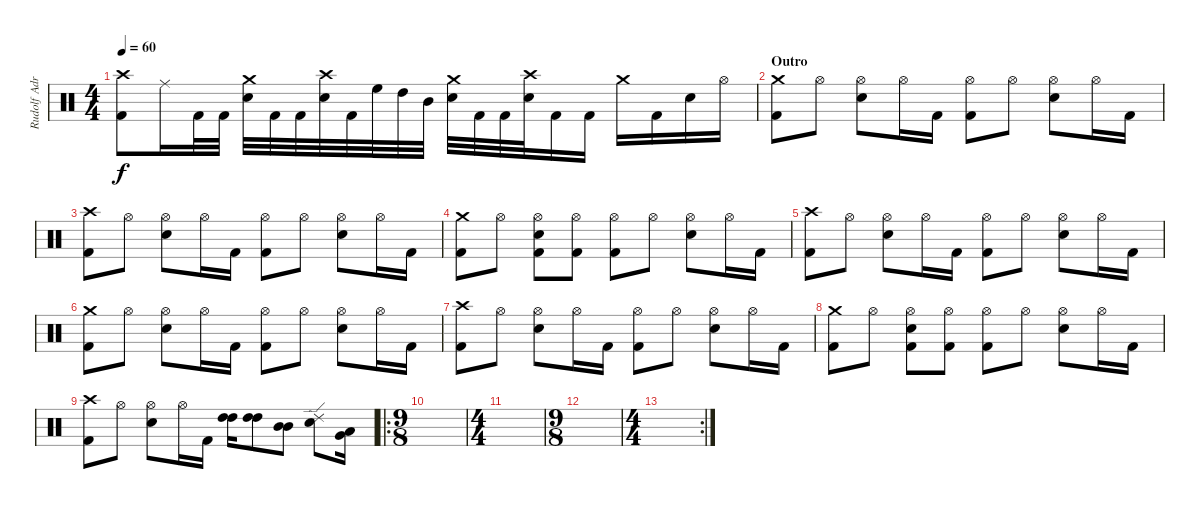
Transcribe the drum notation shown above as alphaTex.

\track ("Rudolf Adrianus Jolie" "Rudolf Adr") {instrument percussion}
\staff {score}
\articulation defaults
\ts (4 4)
\tempo 60
\clef neutral
\ks c
("Crash high (hit)" "Kick (hit) 2").8{dy f} "Ride (middle)".16 "Kick (hit) 2".32 "Kick (hit) 2".32 ("Crash medium (hit)" "Snare (hit) 2").32 "Kick (hit) 2".32 "Kick (hit) 2".32 ("Crash high (hit)" "Snare (hit) 2").32 "Kick (hit) 2".32 "High Floor Tom (hit)".32 "High Tom (hit)".32 "Mid Tom (hit)".32 ("Crash medium (hit)" "Snare (hit) 2").32 "Kick (hit) 2".32 "Kick (hit) 2".32 ("Crash high (hit)" "Snare (hit) 2").32 "Kick (hit) 2".16 "Kick (hit) 2".16 "Crash medium (hit)".16 "Kick (hit) 2".16 "Snare (hit) 2".16 "Hi-Hat (open)".16 |
\section ("" "Outro")
("Crash medium (hit)" "Kick (hit) 2").8 "Hi-Hat (open)".8 ("Hi-Hat (open)" "Snare (hit) 2").8 "Hi-Hat (open)".16 "Kick (hit) 2".16 ("Hi-Hat (open)" "Kick (hit) 2").8 "Hi-Hat (open)".8 ("Hi-Hat (open)" "Snare (hit) 2").8 "Hi-Hat (open)".16 "Kick (hit) 2".16 |
("Crash high (hit)" "Kick (hit) 2").8 "Hi-Hat (open)".8 ("Hi-Hat (open)" "Snare (hit) 2").8 "Hi-Hat (open)".16 "Kick (hit) 2".16 ("Hi-Hat (open)" "Kick (hit) 2").8 "Hi-Hat (open)".8 ("Hi-Hat (open)" "Snare (hit) 2").8 "Hi-Hat (open)".16 "Kick (hit) 2".16 |
("Crash medium (hit)" "Kick (hit) 2").8 "Hi-Hat (open)".8 ("Hi-Hat (open)" "Snare (hit) 2" "Kick (hit) 2").8 ("Hi-Hat (open)" "Kick (hit) 2").8 ("Hi-Hat (open)" "Kick (hit) 2").8 "Hi-Hat (open)".8 ("Hi-Hat (open)" "Snare (hit) 2").8 "Hi-Hat (open)".16 "Kick (hit) 2".16 |
("Crash high (hit)" "Kick (hit) 2").8 "Hi-Hat (open)".8 ("Hi-Hat (open)" "Snare (hit) 2").8 "Hi-Hat (open)".16 "Kick (hit) 2".16 ("Hi-Hat (open)" "Kick (hit) 2").8 "Hi-Hat (open)".8 ("Hi-Hat (open)" "Snare (hit) 2").8 "Hi-Hat (open)".16 "Kick (hit) 2".16 |
("Crash medium (hit)" "Kick (hit) 2").8 "Hi-Hat (open)".8 ("Hi-Hat (open)" "Snare (hit) 2").8 "Hi-Hat (open)".16 "Kick (hit) 2".16 ("Hi-Hat (open)" "Kick (hit) 2").8 "Hi-Hat (open)".8 ("Hi-Hat (open)" "Snare (hit) 2").8 "Hi-Hat (open)".16 "Kick (hit) 2".16 |
("Crash high (hit)" "Kick (hit) 2").8 "Hi-Hat (open)".8 ("Hi-Hat (open)" "Snare (hit) 2").8 "Hi-Hat (open)".16 "Kick (hit) 2".16 ("Hi-Hat (open)" "Kick (hit) 2").8 "Hi-Hat (open)".8 ("Hi-Hat (open)" "Snare (hit) 2").8 "Hi-Hat (open)".16 "Kick (hit) 2".16 |
("Crash medium (hit)" "Kick (hit) 2").8 "Hi-Hat (open)".8 ("Hi-Hat (open)" "Snare (hit) 2" "Kick (hit) 2").8 ("Hi-Hat (open)" "Kick (hit) 2").8 ("Hi-Hat (open)" "Kick (hit) 2").8 "Hi-Hat (open)".8 ("Hi-Hat (open)" "Snare (hit) 2").8 "Hi-Hat (open)".16 "Kick (hit) 2".16 |
("Crash high (hit)" "Kick (hit) 2").8 "Hi-Hat (open)".8 ("Hi-Hat (open)" "Snare (hit) 2").8 "Hi-Hat (open)".16 "Kick (hit) 2".16 ("High Tom (hit)" "High Tom (hit)").16 ("High Tom (hit)" "High Tom (hit)").8 ("Mid Tom (hit)" "Mid Tom (hit)").8 ("Ride (edge) 2" "Snare (hit) 2").8 ("Very Low Tom (hit)" "Low Floor Tom (hit)").16 |
\ro
\ts (9 8)
|
\ts (4 4)
|
\ts (9 8)
|
\rc 2
\ts (4 4)
